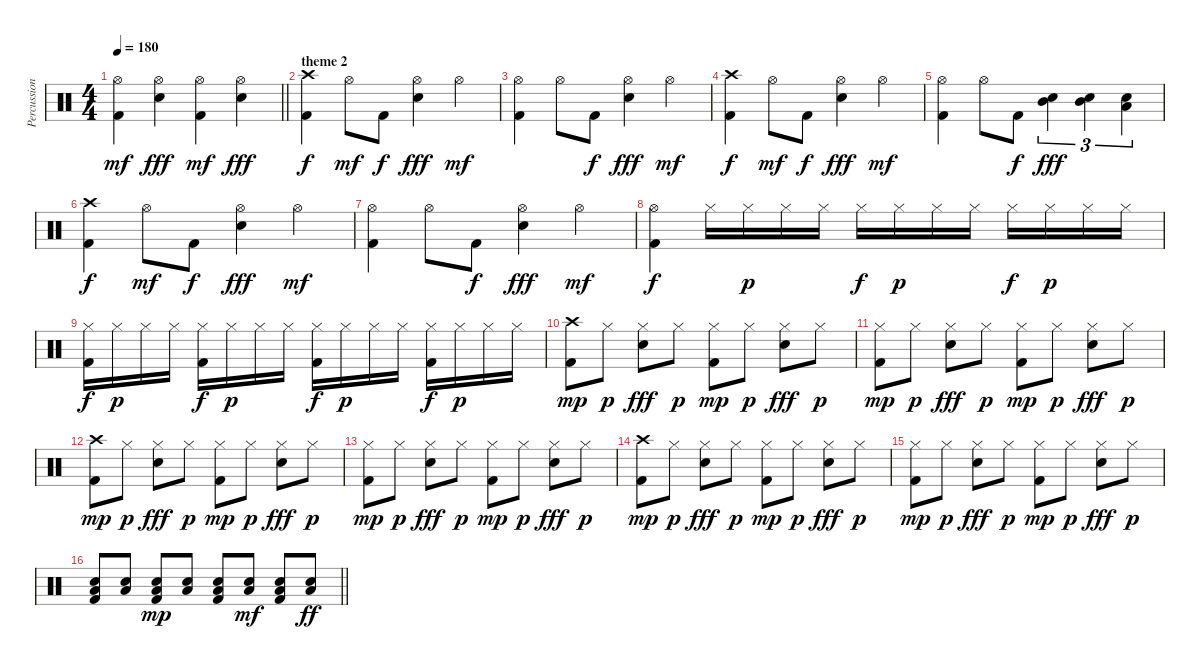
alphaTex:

\track ("Percussions" "Percussion") {instrument percussion}
\staff {score}
\articulation defaults
\ts (4 4)
\tempo 180
\clef neutral
\barLineRight lightlight
\ks c
("Hi-Hat (open)" "Kick (hit) 2").4{dy mf} ("Hi-Hat (open)" "Electric Snare (hit)").4{dy fff} ("Hi-Hat (open)" "Kick (hit) 2").4{dy mf} ("Hi-Hat (open)" "Electric Snare (hit)").4{dy fff} |
\section ("" "theme 2")
("Crash high (hit)" "Kick (hit) 2").4{dy f} "Hi-Hat (open)".8{dy mf} "Kick (hit) 2".8{dy f} ("Hi-Hat (open)" "Electric Snare (hit)").4{dy fff} "Hi-Hat (open)".4{dy mf} |
("Hi-Hat (open)" "Kick (hit) 2").4 "Hi-Hat (open)".8 "Kick (hit) 2".8{dy f} ("Hi-Hat (open)" "Electric Snare (hit)").4{dy fff} "Hi-Hat (open)".4{dy mf} |
("Crash high (hit)" "Kick (hit) 2").4{dy f} "Hi-Hat (open)".8{dy mf} "Kick (hit) 2".8{dy f} ("Hi-Hat (open)" "Electric Snare (hit)").4{dy fff} "Hi-Hat (open)".4{dy mf} |
("Hi-Hat (open)" "Kick (hit) 2").4 "Hi-Hat (open)".8 "Kick (hit) 2".8{dy f} ("Mid Tom (hit)" "Electric Snare (hit)").4{tu (3 2) dy fff} ("Mid Tom (hit)" "Electric Snare (hit)").4{tu (3 2)} ("Low Tom (hit)" "Electric Snare (hit)").4{tu (3 2)} |
("Crash high (hit)" "Kick (hit) 2").4{dy f} "Hi-Hat (open)".8{dy mf} "Kick (hit) 2".8{dy f} ("Hi-Hat (open)" "Electric Snare (hit)").4{dy fff} "Hi-Hat (open)".4{dy mf} |
("Hi-Hat (open)" "Kick (hit) 2").4 "Hi-Hat (open)".8 "Kick (hit) 2".8{dy f} ("Hi-Hat (open)" "Electric Snare (hit)").4{dy fff} "Hi-Hat (open)".4{dy mf} |
("Hi-Hat (open)" "Kick (hit) 2").4{dy f} "Hi-Hat (closed)".16 "Hi-Hat (closed)".16{dy p} "Hi-Hat (closed)".16 "Hi-Hat (closed)".16 "Hi-Hat (closed)".16{dy f} "Hi-Hat (closed)".16{dy p} "Hi-Hat (closed)".16 "Hi-Hat (closed)".16 "Hi-Hat (closed)".16{dy f} "Hi-Hat (closed)".16{dy p} "Hi-Hat (closed)".16 "Hi-Hat (closed)".16 |
("Hi-Hat (closed)" "Kick (hit) 2").16{dy f} "Hi-Hat (closed)".16{dy p} "Hi-Hat (closed)".16 "Hi-Hat (closed)".16 ("Hi-Hat (closed)" "Kick (hit) 2").16{dy f} "Hi-Hat (closed)".16{dy p} "Hi-Hat (closed)".16 "Hi-Hat (closed)".16 ("Hi-Hat (closed)" "Kick (hit) 2").16{dy f} "Hi-Hat (closed)".16{dy p} "Hi-Hat (closed)".16 "Hi-Hat (closed)".16 ("Hi-Hat (closed)" "Kick (hit) 2").16{dy f} "Hi-Hat (closed)".16{dy p} "Hi-Hat (closed)".16 "Hi-Hat (closed)".16 |
("Crash high (hit)" "Kick (hit) 2").8{dy mp} "Hi-Hat (closed)".8{dy p} ("Hi-Hat (closed)" "Electric Snare (hit)").8{dy fff} "Hi-Hat (closed)".8{dy p} ("Hi-Hat (closed)" "Kick (hit) 2").8{dy mp} "Hi-Hat (closed)".8{dy p} ("Hi-Hat (closed)" "Electric Snare (hit)").8{dy fff} "Hi-Hat (closed)".8{dy p} |
("Hi-Hat (closed)" "Kick (hit) 2").8{dy mp} "Hi-Hat (closed)".8{dy p} ("Hi-Hat (closed)" "Electric Snare (hit)").8{dy fff} "Hi-Hat (closed)".8{dy p} ("Hi-Hat (closed)" "Kick (hit) 2").8{dy mp} "Hi-Hat (closed)".8{dy p} ("Hi-Hat (closed)" "Electric Snare (hit)").8{dy fff} "Hi-Hat (closed)".8{dy p} |
("Crash high (hit)" "Kick (hit) 2").8{dy mp} "Hi-Hat (closed)".8{dy p} ("Hi-Hat (closed)" "Electric Snare (hit)").8{dy fff} "Hi-Hat (closed)".8{dy p} ("Hi-Hat (closed)" "Kick (hit) 2").8{dy mp} "Hi-Hat (closed)".8{dy p} ("Hi-Hat (closed)" "Electric Snare (hit)").8{dy fff} "Hi-Hat (closed)".8{dy p} |
("Hi-Hat (closed)" "Kick (hit) 2").8{dy mp} "Hi-Hat (closed)".8{dy p} ("Hi-Hat (closed)" "Electric Snare (hit)").8{dy fff} "Hi-Hat (closed)".8{dy p} ("Hi-Hat (closed)" "Kick (hit) 2").8{dy mp} "Hi-Hat (closed)".8{dy p} ("Hi-Hat (closed)" "Electric Snare (hit)").8{dy fff} "Hi-Hat (closed)".8{dy p} |
("Crash high (hit)" "Kick (hit) 2").8{dy mp} "Hi-Hat (closed)".8{dy p} ("Hi-Hat (closed)" "Electric Snare (hit)").8{dy fff} "Hi-Hat (closed)".8{dy p} ("Hi-Hat (closed)" "Kick (hit) 2").8{dy mp} "Hi-Hat (closed)".8{dy p} ("Hi-Hat (closed)" "Electric Snare (hit)").8{dy fff} "Hi-Hat (closed)".8{dy p} |
("Hi-Hat (closed)" "Kick (hit) 2").8{dy mp} "Hi-Hat (closed)".8{dy p} ("Hi-Hat (closed)" "Electric Snare (hit)").8{dy fff} "Hi-Hat (closed)".8{dy p} ("Hi-Hat (closed)" "Kick (hit) 2").8{dy mp} "Hi-Hat (closed)".8{dy p} ("Hi-Hat (closed)" "Electric Snare (hit)").8{dy fff} "Hi-Hat (closed)".8{dy p} |
\barLineRight lightlight
("Low Tom (hit)" "Electric Snare (hit)" "Kick (hit) 2").8 ("Low Tom (hit)" "Electric Snare (hit)").8 ("Low Tom (hit)" "Electric Snare (hit)" "Kick (hit) 2").8{dy mp} ("Low Tom (hit)" "Electric Snare (hit)").8 ("Low Tom (hit)" "Electric Snare (hit)" "Kick (hit) 2").8 ("Low Tom (hit)" "Electric Snare (hit)").8{dy mf} ("Low Tom (hit)" "Electric Snare (hit)" "Kick (hit) 2").8 ("Low Tom (hit)" "Electric Snare (hit)").8{dy ff}
